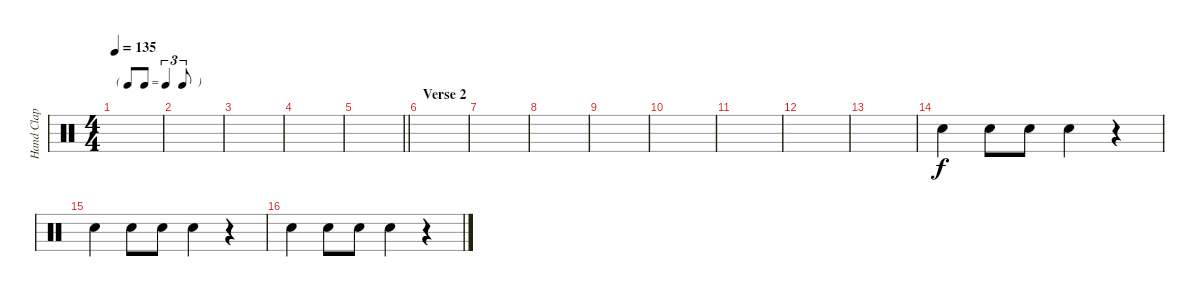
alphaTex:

\track ("Hand Clap" "Hand Clap") {instrument percussion}
\staff {score}
\articulation defaults
\ts (4 4)
\tf triplet8th
\tempo 135
\clef neutral
\ks c
|
|
|
|
\barLineRight lightlight
|
\section ("" "Verse 2")
|
|
|
|
|
|
|
|
"Hand Clap (hit)".4 "Hand Clap (hit)".8 "Hand Clap (hit)".8 "Hand Clap (hit)".4 r.4 |
"Hand Clap (hit)".4 "Hand Clap (hit)".8 "Hand Clap (hit)".8 "Hand Clap (hit)".4 r.4 |
"Hand Clap (hit)".4 "Hand Clap (hit)".8 "Hand Clap (hit)".8 "Hand Clap (hit)".4 r.4
